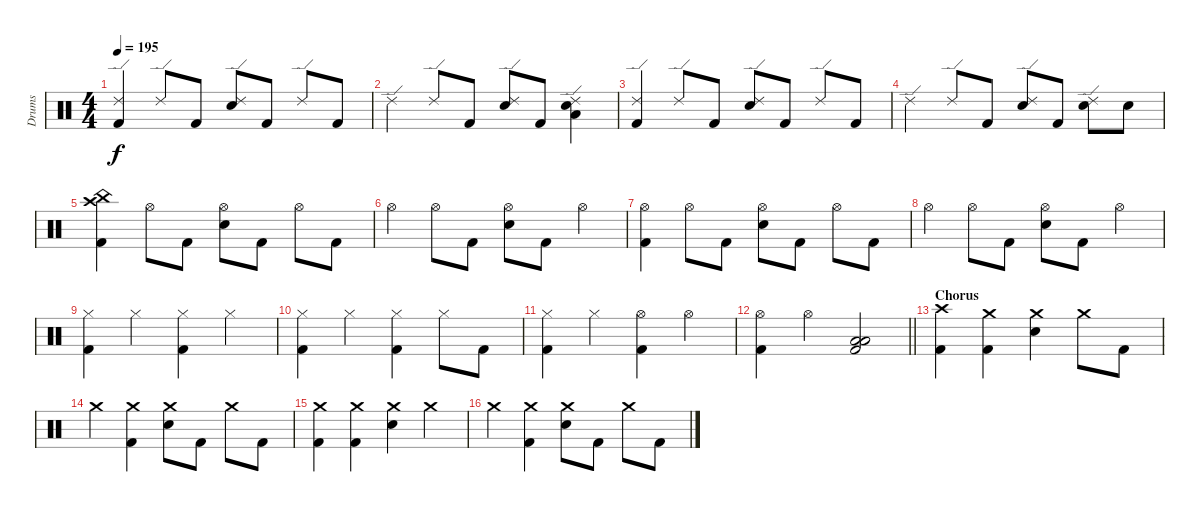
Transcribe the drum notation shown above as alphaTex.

\track ("Drums" "Drums") {instrument percussion}
\staff {score}
\articulation defaults
\ts (4 4)
\tempo 195
\clef neutral
\ks c
("Ride (edge) 2" "Kick (hit) 2").4{dy f} "Ride (edge) 2".8 "Kick (hit) 2".8 ("Ride (edge) 2" "Snare (hit) 2").8 "Kick (hit) 2".8 "Ride (edge) 2".8 "Kick (hit) 2".8 |
"Ride (edge) 2".4 "Ride (edge) 2".8 "Kick (hit) 2".8 ("Ride (edge) 2" "Snare (hit) 2").8 "Kick (hit) 2".8 ("Ride (edge) 2" "Snare (hit) 2" "Low Floor Tom (hit)").4 |
("Ride (edge) 2" "Kick (hit) 2").4 "Ride (edge) 2".8 "Kick (hit) 2".8 ("Ride (edge) 2" "Snare (hit) 2").8 "Kick (hit) 2".8 "Ride (edge) 2".8 "Kick (hit) 2".8 |
"Ride (edge) 2".4 "Ride (edge) 2".8 "Kick (hit) 2".8 ("Ride (edge) 2" "Snare (hit) 2").8 "Kick (hit) 2".8 ("Ride (edge) 2" "Snare (hit) 2").8 "Snare (hit) 2".8 |
("Crash high (hit)" "Kick (hit) 2" "China (hit)").4 "Hi-Hat (open)".8 "Kick (hit) 2".8 ("Hi-Hat (open)" "Snare (hit) 2").8 "Kick (hit) 2".8 "Hi-Hat (open)".8 "Kick (hit) 2".8 |
"Hi-Hat (open)".4 "Hi-Hat (open)".8 "Kick (hit) 2".8 ("Hi-Hat (open)" "Snare (hit) 2").8 "Kick (hit) 2".8 "Hi-Hat (open)".4 |
("Hi-Hat (open)" "Kick (hit) 2").4 "Hi-Hat (open)".8 "Kick (hit) 2".8 ("Hi-Hat (open)" "Snare (hit) 2").8 "Kick (hit) 2".8 "Hi-Hat (open)".8 "Kick (hit) 2".8 |
"Hi-Hat (open)".4 "Hi-Hat (open)".8 "Kick (hit) 2".8 ("Hi-Hat (open)" "Snare (hit) 2").8 "Kick (hit) 2".8 "Hi-Hat (open)".4 |
("Hi-Hat (closed)" "Kick (hit) 2").4 "Hi-Hat (closed)".4 ("Hi-Hat (closed)" "Kick (hit) 2").4 "Hi-Hat (closed)".4 |
("Hi-Hat (closed)" "Kick (hit) 2").4 "Hi-Hat (closed)".4 ("Hi-Hat (closed)" "Kick (hit) 2").4 "Hi-Hat (closed)".8 "Kick (hit) 2".8 |
("Hi-Hat (closed)" "Kick (hit) 2").4 "Hi-Hat (closed)".4 ("Hi-Hat (open)" "Kick (hit) 2").4 "Hi-Hat (open)".4 |
\barLineRight lightlight
("Hi-Hat (open)" "Kick (hit) 2").4 "Hi-Hat (open)".4 ("Low Floor Tom (hit)" "Low Floor Tom (hit)" "Kick (hit) 2").2 |
\section ("" "Chorus")
("Crash high (hit)" "Kick (hit) 2").4 ("Crash medium (hit)" "Kick (hit) 2").4 ("Crash medium (hit)" "Snare (hit) 2").4 "Crash medium (hit)".8 "Kick (hit) 2".8 |
"Crash medium (hit)".4 ("Crash medium (hit)" "Kick (hit) 2").4 ("Crash medium (hit)" "Snare (hit) 2").8 "Kick (hit) 2".8 "Crash medium (hit)".8 "Kick (hit) 2".8 |
("Crash medium (hit)" "Kick (hit) 2").4 ("Crash medium (hit)" "Kick (hit) 2").4 ("Crash medium (hit)" "Snare (hit) 2").4 "Crash medium (hit)".4 |
"Crash medium (hit)".4 ("Crash medium (hit)" "Kick (hit) 2").4 ("Crash medium (hit)" "Snare (hit) 2").8 "Kick (hit) 2".8 "Crash medium (hit)".8 "Kick (hit) 2".8
